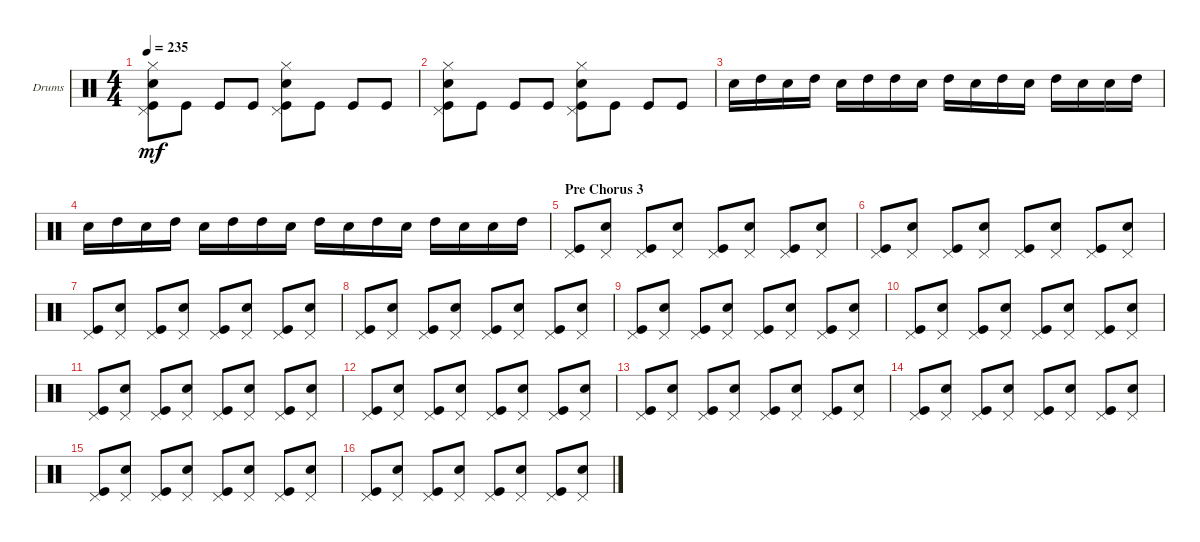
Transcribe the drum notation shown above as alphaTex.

\defaultSystemsLayout 4
\bracketExtendMode groupsimilarinstruments
\firstSystemTrackNameOrientation horizontal
\otherSystemsTrackNameOrientation horizontal
\track ("Drumkit" "Drums") {instrument percussion}
\staff {score}
\articulation defaults
\ts (4 4)
\tempo 235
\clef neutral
\scale
0.333333
\ks c
("Kick (hit)" "Snare (hit) 2" "Pedal Hi-Hat (hit)" "Hi-Hat (closed)").8{dy mf} "Kick (hit)".8 "Kick (hit)".8 "Kick (hit)".8 ("Kick (hit)" "Pedal Hi-Hat (hit)" "Snare (hit) 2" "Hi-Hat (closed)").8 "Kick (hit)".8 "Kick (hit)".8 "Kick (hit)".8 |
\scale
0.333333 ("Kick (hit)" "Snare (hit) 2" "Pedal Hi-Hat (hit)" "Hi-Hat (closed)").8 "Kick (hit)".8 "Kick (hit)".8 "Kick (hit)".8 ("Kick (hit)" "Pedal Hi-Hat (hit)" "Snare (hit) 2" "Hi-Hat (closed)").8 "Kick (hit)".8 "Kick (hit)".8 "Kick (hit)".8 |
\scale
0.333333 "Snare (hit) 2".16 "High Tom (hit)".16 "Snare (hit) 2".16 "High Tom (hit)".16 "Snare (hit) 2".16 "High Tom (hit)".16 "High Tom (hit)".16 "Snare (hit) 2".16 "High Tom (hit)".16 "Snare (hit) 2".16 "High Tom (hit)".16 "Snare (hit) 2".16 "High Tom (hit)".16 "Snare (hit) 2".16 "Snare (hit) 2".16 "High Tom (hit)".16 |
\scale
0.333333 "Snare (hit) 2".16 "High Tom (hit)".16 "Snare (hit) 2".16 "High Tom (hit)".16 "Snare (hit) 2".16 "High Tom (hit)".16 "High Tom (hit)".16 "Snare (hit) 2".16 "High Tom (hit)".16 "Snare (hit) 2".16 "High Tom (hit)".16 "Snare (hit) 2".16 "High Tom (hit)".16 "Snare (hit) 2".16 "Snare (hit) 2".16 "High Tom (hit)".16 |
\section ("" "Pre Chorus 3")
\scale
0.333333 ("Kick (hit)" "Pedal Hi-Hat (hit)").8 ("Snare (hit) 2" "Pedal Hi-Hat (hit)").8 ("Kick (hit)" "Pedal Hi-Hat (hit)").8 ("Snare (hit) 2" "Pedal Hi-Hat (hit)").8 ("Kick (hit)" "Pedal Hi-Hat (hit)").8 ("Snare (hit) 2" "Pedal Hi-Hat (hit)").8 ("Kick (hit)" "Pedal Hi-Hat (hit)").8 ("Snare (hit) 2" "Pedal Hi-Hat (hit)").8 |
\scale
0.333333 ("Kick (hit)" "Pedal Hi-Hat (hit)").8 ("Snare (hit) 2" "Pedal Hi-Hat (hit)").8 ("Kick (hit)" "Pedal Hi-Hat (hit)").8 ("Snare (hit) 2" "Pedal Hi-Hat (hit)").8 ("Kick (hit)" "Pedal Hi-Hat (hit)").8 ("Snare (hit) 2" "Pedal Hi-Hat (hit)").8 ("Kick (hit)" "Pedal Hi-Hat (hit)").8 ("Snare (hit) 2" "Pedal Hi-Hat (hit)").8 |
\scale
0.333333 ("Kick (hit)" "Pedal Hi-Hat (hit)").8 ("Snare (hit) 2" "Pedal Hi-Hat (hit)").8 ("Kick (hit)" "Pedal Hi-Hat (hit)").8 ("Snare (hit) 2" "Pedal Hi-Hat (hit)").8 ("Kick (hit)" "Pedal Hi-Hat (hit)").8 ("Snare (hit) 2" "Pedal Hi-Hat (hit)").8 ("Kick (hit)" "Pedal Hi-Hat (hit)").8 ("Snare (hit) 2" "Pedal Hi-Hat (hit)").8 |
\scale
0.333333 ("Kick (hit)" "Pedal Hi-Hat (hit)").8 ("Snare (hit) 2" "Pedal Hi-Hat (hit)").8 ("Kick (hit)" "Pedal Hi-Hat (hit)").8 ("Snare (hit) 2" "Pedal Hi-Hat (hit)").8 ("Kick (hit)" "Pedal Hi-Hat (hit)").8 ("Snare (hit) 2" "Pedal Hi-Hat (hit)").8 ("Kick (hit)" "Pedal Hi-Hat (hit)").8 ("Snare (hit) 2" "Pedal Hi-Hat (hit)").8 |
\scale
0.333333 ("Kick (hit)" "Pedal Hi-Hat (hit)").8 ("Snare (hit) 2" "Pedal Hi-Hat (hit)").8 ("Kick (hit)" "Pedal Hi-Hat (hit)").8 ("Snare (hit) 2" "Pedal Hi-Hat (hit)").8 ("Kick (hit)" "Pedal Hi-Hat (hit)").8 ("Snare (hit) 2" "Pedal Hi-Hat (hit)").8 ("Kick (hit)" "Pedal Hi-Hat (hit)").8 ("Snare (hit) 2" "Pedal Hi-Hat (hit)").8 |
\scale
0.333333 ("Kick (hit)" "Pedal Hi-Hat (hit)").8 ("Snare (hit) 2" "Pedal Hi-Hat (hit)").8 ("Kick (hit)" "Pedal Hi-Hat (hit)").8 ("Snare (hit) 2" "Pedal Hi-Hat (hit)").8 ("Kick (hit)" "Pedal Hi-Hat (hit)").8 ("Snare (hit) 2" "Pedal Hi-Hat (hit)").8 ("Kick (hit)" "Pedal Hi-Hat (hit)").8 ("Snare (hit) 2" "Pedal Hi-Hat (hit)").8 |
\scale
0.333333 ("Kick (hit)" "Pedal Hi-Hat (hit)").8 ("Snare (hit) 2" "Pedal Hi-Hat (hit)").8 ("Kick (hit)" "Pedal Hi-Hat (hit)").8 ("Snare (hit) 2" "Pedal Hi-Hat (hit)").8 ("Kick (hit)" "Pedal Hi-Hat (hit)").8 ("Snare (hit) 2" "Pedal Hi-Hat (hit)").8 ("Kick (hit)" "Pedal Hi-Hat (hit)").8 ("Snare (hit) 2" "Pedal Hi-Hat (hit)").8 |
\scale
0.333333 ("Kick (hit)" "Pedal Hi-Hat (hit)").8 ("Snare (hit) 2" "Pedal Hi-Hat (hit)").8 ("Kick (hit)" "Pedal Hi-Hat (hit)").8 ("Snare (hit) 2" "Pedal Hi-Hat (hit)").8 ("Kick (hit)" "Pedal Hi-Hat (hit)").8 ("Snare (hit) 2" "Pedal Hi-Hat (hit)").8 ("Kick (hit)" "Pedal Hi-Hat (hit)").8 ("Snare (hit) 2" "Pedal Hi-Hat (hit)").8 |
\scale
0.333333 ("Kick (hit)" "Pedal Hi-Hat (hit)").8 ("Snare (hit) 2" "Pedal Hi-Hat (hit)").8 ("Kick (hit)" "Pedal Hi-Hat (hit)").8 ("Snare (hit) 2" "Pedal Hi-Hat (hit)").8 ("Kick (hit)" "Pedal Hi-Hat (hit)").8 ("Snare (hit) 2" "Pedal Hi-Hat (hit)").8 ("Kick (hit)" "Pedal Hi-Hat (hit)").8 ("Snare (hit) 2" "Pedal Hi-Hat (hit)").8 |
\scale
0.333333 ("Kick (hit)" "Pedal Hi-Hat (hit)").8 ("Snare (hit) 2" "Pedal Hi-Hat (hit)").8 ("Kick (hit)" "Pedal Hi-Hat (hit)").8 ("Snare (hit) 2" "Pedal Hi-Hat (hit)").8 ("Kick (hit)" "Pedal Hi-Hat (hit)").8 ("Snare (hit) 2" "Pedal Hi-Hat (hit)").8 ("Kick (hit)" "Pedal Hi-Hat (hit)").8 ("Snare (hit) 2" "Pedal Hi-Hat (hit)").8 |
\scale
0.333333 ("Kick (hit)" "Pedal Hi-Hat (hit)").8 ("Snare (hit) 2" "Pedal Hi-Hat (hit)").8 ("Kick (hit)" "Pedal Hi-Hat (hit)").8 ("Snare (hit) 2" "Pedal Hi-Hat (hit)").8 ("Kick (hit)" "Pedal Hi-Hat (hit)").8 ("Snare (hit) 2" "Pedal Hi-Hat (hit)").8 ("Kick (hit)" "Pedal Hi-Hat (hit)").8 ("Snare (hit) 2" "Pedal Hi-Hat (hit)").8 |
\scale
0.333333 ("Kick (hit)" "Pedal Hi-Hat (hit)").8 ("Snare (hit) 2" "Pedal Hi-Hat (hit)").8 ("Kick (hit)" "Pedal Hi-Hat (hit)").8 ("Snare (hit) 2" "Pedal Hi-Hat (hit)").8 ("Kick (hit)" "Pedal Hi-Hat (hit)").8 ("Snare (hit) 2" "Pedal Hi-Hat (hit)").8 ("Kick (hit)" "Pedal Hi-Hat (hit)").8 ("Snare (hit) 2" "Pedal Hi-Hat (hit)").8
